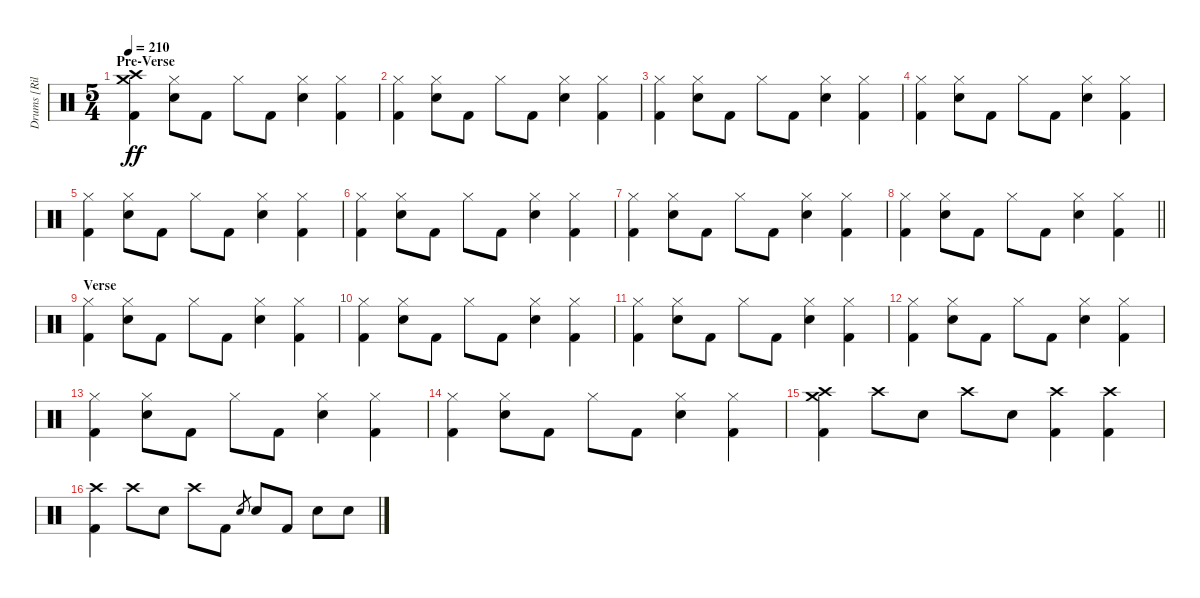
\track ("Drums [Riley]" "Drums [Ril") {instrument percussion}
\staff {score}
\articulation defaults
\ts (5 4)
\section ("" "Pre-Verse")
\tempo 210
\clef neutral
\ks c
("Crash medium (hit)" "Crash high (hit)" "Kick (hit) 2").4{dy ff} ("Hi-Hat (closed)" "Electric Snare (hit)").8 "Kick (hit) 2".8 "Hi-Hat (closed)".8 "Kick (hit) 2".8 ("Hi-Hat (closed)" "Electric Snare (hit)").4 ("Hi-Hat (closed)" "Kick (hit) 2").4 |
("Hi-Hat (closed)" "Kick (hit) 2").4 ("Hi-Hat (closed)" "Electric Snare (hit)").8 "Kick (hit) 2".8 "Hi-Hat (closed)".8 "Kick (hit) 2".8 ("Hi-Hat (closed)" "Electric Snare (hit)").4 ("Hi-Hat (closed)" "Kick (hit) 2").4 |
("Hi-Hat (closed)" "Kick (hit) 2").4 ("Hi-Hat (closed)" "Electric Snare (hit)").8 "Kick (hit) 2".8 "Hi-Hat (closed)".8 "Kick (hit) 2".8 ("Hi-Hat (closed)" "Electric Snare (hit)").4 ("Hi-Hat (closed)" "Kick (hit) 2").4 |
("Hi-Hat (closed)" "Kick (hit) 2").4 ("Hi-Hat (closed)" "Electric Snare (hit)").8 "Kick (hit) 2".8 "Hi-Hat (closed)".8 "Kick (hit) 2".8 ("Hi-Hat (closed)" "Electric Snare (hit)").4 ("Hi-Hat (closed)" "Kick (hit) 2").4 |
("Hi-Hat (closed)" "Kick (hit) 2").4 ("Hi-Hat (closed)" "Electric Snare (hit)").8 "Kick (hit) 2".8 "Hi-Hat (closed)".8 "Kick (hit) 2".8 ("Hi-Hat (closed)" "Electric Snare (hit)").4 ("Hi-Hat (closed)" "Kick (hit) 2").4 |
("Hi-Hat (closed)" "Kick (hit) 2").4 ("Hi-Hat (closed)" "Electric Snare (hit)").8 "Kick (hit) 2".8 "Hi-Hat (closed)".8 "Kick (hit) 2".8 ("Hi-Hat (closed)" "Electric Snare (hit)").4 ("Hi-Hat (closed)" "Kick (hit) 2").4 |
("Hi-Hat (closed)" "Kick (hit) 2").4 ("Hi-Hat (closed)" "Electric Snare (hit)").8 "Kick (hit) 2".8 "Hi-Hat (closed)".8 "Kick (hit) 2".8 ("Hi-Hat (closed)" "Electric Snare (hit)").4 ("Hi-Hat (closed)" "Kick (hit) 2").4 |
\barLineRight lightlight
("Hi-Hat (closed)" "Kick (hit) 2").4 ("Hi-Hat (closed)" "Electric Snare (hit)").8 "Kick (hit) 2".8 "Hi-Hat (closed)".8 "Kick (hit) 2".8 ("Hi-Hat (closed)" "Electric Snare (hit)").4 ("Hi-Hat (closed)" "Kick (hit) 2").4 |
\section ("" "Verse")
("Hi-Hat (closed)" "Kick (hit) 2").4 ("Hi-Hat (closed)" "Electric Snare (hit)").8 "Kick (hit) 2".8 "Hi-Hat (closed)".8 "Kick (hit) 2".8 ("Hi-Hat (closed)" "Electric Snare (hit)").4 ("Hi-Hat (closed)" "Kick (hit) 2").4 |
("Hi-Hat (closed)" "Kick (hit) 2").4 ("Hi-Hat (closed)" "Electric Snare (hit)").8 "Kick (hit) 2".8 "Hi-Hat (closed)".8 "Kick (hit) 2".8 ("Hi-Hat (closed)" "Electric Snare (hit)").4 ("Hi-Hat (closed)" "Kick (hit) 2").4 |
("Hi-Hat (closed)" "Kick (hit) 2").4 ("Hi-Hat (closed)" "Electric Snare (hit)").8 "Kick (hit) 2".8 "Hi-Hat (closed)".8 "Kick (hit) 2".8 ("Hi-Hat (closed)" "Electric Snare (hit)").4 ("Hi-Hat (closed)" "Kick (hit) 2").4 |
("Hi-Hat (closed)" "Kick (hit) 2").4 ("Hi-Hat (closed)" "Electric Snare (hit)").8 "Kick (hit) 2".8 "Hi-Hat (closed)".8 "Kick (hit) 2".8 ("Hi-Hat (closed)" "Electric Snare (hit)").4 ("Hi-Hat (closed)" "Kick (hit) 2").4 |
("Hi-Hat (closed)" "Kick (hit) 2").4 ("Hi-Hat (closed)" "Electric Snare (hit)").8 "Kick (hit) 2".8 "Hi-Hat (closed)".8 "Kick (hit) 2".8 ("Hi-Hat (closed)" "Electric Snare (hit)").4 ("Hi-Hat (closed)" "Kick (hit) 2").4 |
("Hi-Hat (closed)" "Kick (hit) 2").4 ("Hi-Hat (closed)" "Electric Snare (hit)").8 "Kick (hit) 2".8 "Hi-Hat (closed)".8 "Kick (hit) 2".8 ("Hi-Hat (closed)" "Electric Snare (hit)").4 ("Hi-Hat (closed)" "Kick (hit) 2").4 |
("Crash medium (hit)" "Crash high (hit)" "Kick (hit) 2").4 "Crash high (hit)".8 "Electric Snare (hit)".8 "Crash high (hit)".8 "Electric Snare (hit)".8 ("Crash high (hit)" "Kick (hit) 2").4 ("Crash high (hit)" "Kick (hit) 2").4 |
("Crash high (hit)" "Kick (hit) 2").4 "Crash high (hit)".8 "Electric Snare (hit)".8 "Crash high (hit)".8 "Kick (hit) 2".8 "Electric Snare (hit)".8{gr} "Electric Snare (hit)".8 "Kick (hit) 2".8 "Electric Snare (hit)".8 "Electric Snare (hit)".8
